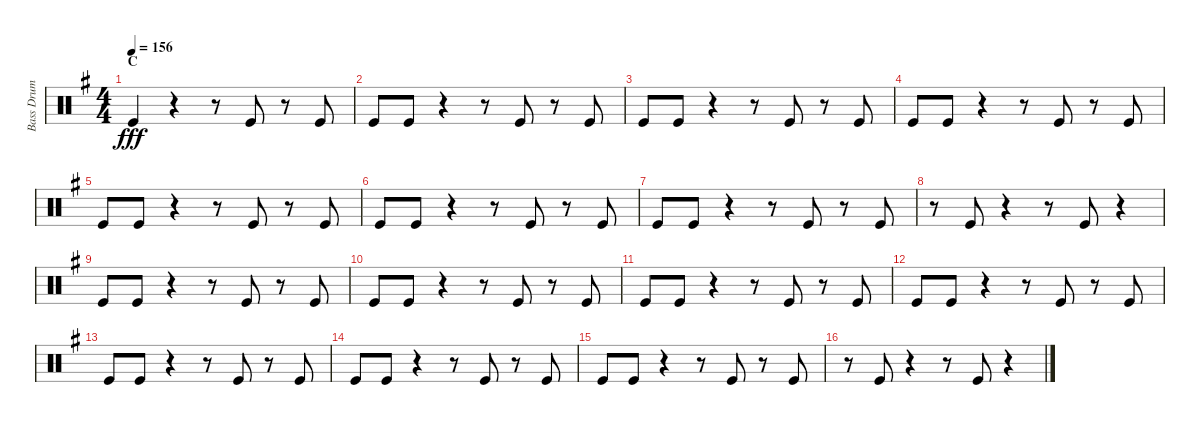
\track ("Bass Drum" "Bass Drum") {instrument percussion}
\staff {score}
\articulation defaults
\ts (4 4)
\section ("" "C")
\tempo 156
\clef neutral
\ks g "Kick (hit)".4{dy fff}
r.4 r.8 "Kick (hit)".8 r.8 "Kick (hit)".8 |
"Kick (hit)".8 "Kick (hit)".8 r.4 r.8 "Kick (hit)".8 r.8 "Kick (hit)".8 |
"Kick (hit)".8 "Kick (hit)".8 r.4 r.8 "Kick (hit)".8 r.8 "Kick (hit)".8 |
"Kick (hit)".8 "Kick (hit)".8 r.4 r.8 "Kick (hit)".8 r.8 "Kick (hit)".8 |
"Kick (hit)".8 "Kick (hit)".8 r.4 r.8 "Kick (hit)".8 r.8 "Kick (hit)".8 |
"Kick (hit)".8 "Kick (hit)".8 r.4 r.8 "Kick (hit)".8 r.8 "Kick (hit)".8 |
"Kick (hit)".8 "Kick (hit)".8 r.4 r.8 "Kick (hit)".8 r.8 "Kick (hit)".8 |
r.8 "Kick (hit)".8 r.4 r.8 "Kick (hit)".8 r.4 |
"Kick (hit)".8 "Kick (hit)".8 r.4 r.8 "Kick (hit)".8 r.8 "Kick (hit)".8 |
"Kick (hit)".8 "Kick (hit)".8 r.4 r.8 "Kick (hit)".8 r.8 "Kick (hit)".8 |
"Kick (hit)".8 "Kick (hit)".8 r.4 r.8 "Kick (hit)".8 r.8 "Kick (hit)".8 |
"Kick (hit)".8 "Kick (hit)".8 r.4 r.8 "Kick (hit)".8 r.8 "Kick (hit)".8 |
"Kick (hit)".8 "Kick (hit)".8 r.4 r.8 "Kick (hit)".8 r.8 "Kick (hit)".8 |
"Kick (hit)".8 "Kick (hit)".8 r.4 r.8 "Kick (hit)".8 r.8 "Kick (hit)".8 |
"Kick (hit)".8 "Kick (hit)".8 r.4 r.8 "Kick (hit)".8 r.8 "Kick (hit)".8 |
r.8 "Kick (hit)".8 r.4 r.8 "Kick (hit)".8 r.4
